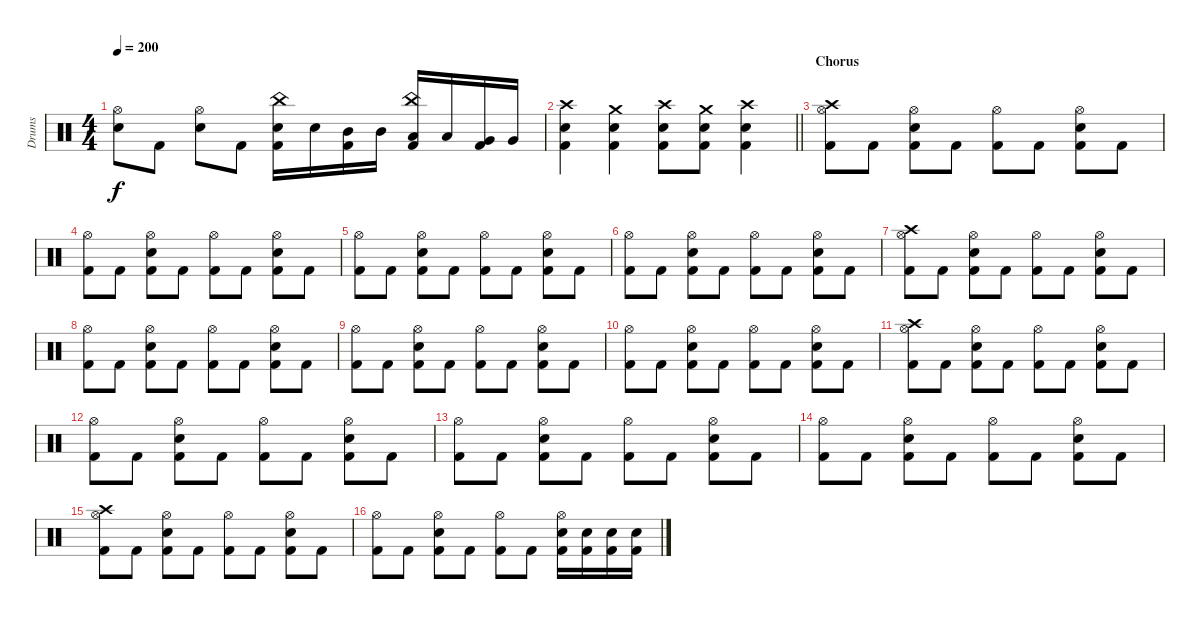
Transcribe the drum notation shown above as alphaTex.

\track ("Drums" "Drums") {instrument percussion}
\staff {score}
\articulation defaults
\ts (4 4)
\tempo 200
\clef neutral
\ks c
("Hi-Hat (open)" "Snare (hit) 2").8{dy f} "Kick (hit) 2".8 ("Hi-Hat (open)" "Snare (hit) 2").8 "Kick (hit) 2".8 ("China (hit)" "Snare (hit) 2" "Kick (hit) 2").16 "Snare (hit) 2".16 ("Mid Tom (hit)" "Kick (hit) 2").16 "Mid Tom (hit)".16 ("China (hit)" "Low Tom (hit)" "Kick (hit) 2").16 "Low Tom (hit)".16 ("Very Low Tom (hit)" "Kick (hit) 2").16 "Very Low Tom (hit)".16 |
\barLineRight lightlight
("Crash high (hit)" "Snare (hit) 2" "Kick (hit) 2").4 ("Crash medium (hit)" "Snare (hit) 2" "Kick (hit) 2").4 ("Crash high (hit)" "Snare (hit) 2" "Kick (hit) 2").8 ("Crash medium (hit)" "Snare (hit) 2" "Kick (hit) 2").8 ("Crash high (hit)" "Snare (hit) 2" "Kick (hit) 2").4 |
\section ("" "Chorus")
("Crash high (hit)" "Hi-Hat (open)" "Kick (hit) 2").8 "Kick (hit) 2".8 ("Hi-Hat (open)" "Snare (hit) 2" "Kick (hit) 2").8 "Kick (hit) 2".8 ("Hi-Hat (open)" "Kick (hit) 2").8 "Kick (hit) 2".8 ("Hi-Hat (open)" "Snare (hit) 2" "Kick (hit) 2").8 "Kick (hit) 2".8 |
("Hi-Hat (open)" "Kick (hit) 2").8 "Kick (hit) 2".8 ("Hi-Hat (open)" "Snare (hit) 2" "Kick (hit) 2").8 "Kick (hit) 2".8 ("Hi-Hat (open)" "Kick (hit) 2").8 "Kick (hit) 2".8 ("Hi-Hat (open)" "Snare (hit) 2" "Kick (hit) 2").8 "Kick (hit) 2".8 |
("Hi-Hat (open)" "Kick (hit) 2").8 "Kick (hit) 2".8 ("Hi-Hat (open)" "Snare (hit) 2" "Kick (hit) 2").8 "Kick (hit) 2".8 ("Hi-Hat (open)" "Kick (hit) 2").8 "Kick (hit) 2".8 ("Hi-Hat (open)" "Snare (hit) 2" "Kick (hit) 2").8 "Kick (hit) 2".8 |
("Hi-Hat (open)" "Kick (hit) 2").8 "Kick (hit) 2".8 ("Hi-Hat (open)" "Snare (hit) 2" "Kick (hit) 2").8 "Kick (hit) 2".8 ("Hi-Hat (open)" "Kick (hit) 2").8 "Kick (hit) 2".8 ("Hi-Hat (open)" "Snare (hit) 2" "Kick (hit) 2").8 "Kick (hit) 2".8 |
("Crash high (hit)" "Hi-Hat (open)" "Kick (hit) 2").8 "Kick (hit) 2".8 ("Hi-Hat (open)" "Snare (hit) 2" "Kick (hit) 2").8 "Kick (hit) 2".8 ("Hi-Hat (open)" "Kick (hit) 2").8 "Kick (hit) 2".8 ("Hi-Hat (open)" "Snare (hit) 2" "Kick (hit) 2").8 "Kick (hit) 2".8 |
("Hi-Hat (open)" "Kick (hit) 2").8 "Kick (hit) 2".8 ("Hi-Hat (open)" "Snare (hit) 2" "Kick (hit) 2").8 "Kick (hit) 2".8 ("Hi-Hat (open)" "Kick (hit) 2").8 "Kick (hit) 2".8 ("Hi-Hat (open)" "Snare (hit) 2" "Kick (hit) 2").8 "Kick (hit) 2".8 |
("Hi-Hat (open)" "Kick (hit) 2").8 "Kick (hit) 2".8 ("Hi-Hat (open)" "Snare (hit) 2" "Kick (hit) 2").8 "Kick (hit) 2".8 ("Hi-Hat (open)" "Kick (hit) 2").8 "Kick (hit) 2".8 ("Hi-Hat (open)" "Snare (hit) 2" "Kick (hit) 2").8 "Kick (hit) 2".8 |
("Hi-Hat (open)" "Kick (hit) 2").8 "Kick (hit) 2".8 ("Hi-Hat (open)" "Snare (hit) 2" "Kick (hit) 2").8 "Kick (hit) 2".8 ("Hi-Hat (open)" "Kick (hit) 2").8 "Kick (hit) 2".8 ("Hi-Hat (open)" "Snare (hit) 2" "Kick (hit) 2").8 "Kick (hit) 2".8 |
("Crash high (hit)" "Hi-Hat (open)" "Kick (hit) 2").8 "Kick (hit) 2".8 ("Hi-Hat (open)" "Snare (hit) 2" "Kick (hit) 2").8 "Kick (hit) 2".8 ("Hi-Hat (open)" "Kick (hit) 2").8 "Kick (hit) 2".8 ("Hi-Hat (open)" "Snare (hit) 2" "Kick (hit) 2").8 "Kick (hit) 2".8 |
("Hi-Hat (open)" "Kick (hit) 2").8 "Kick (hit) 2".8 ("Hi-Hat (open)" "Snare (hit) 2" "Kick (hit) 2").8 "Kick (hit) 2".8 ("Hi-Hat (open)" "Kick (hit) 2").8 "Kick (hit) 2".8 ("Hi-Hat (open)" "Snare (hit) 2" "Kick (hit) 2").8 "Kick (hit) 2".8 |
("Hi-Hat (open)" "Kick (hit) 2").8 "Kick (hit) 2".8 ("Hi-Hat (open)" "Snare (hit) 2" "Kick (hit) 2").8 "Kick (hit) 2".8 ("Hi-Hat (open)" "Kick (hit) 2").8 "Kick (hit) 2".8 ("Hi-Hat (open)" "Snare (hit) 2" "Kick (hit) 2").8 "Kick (hit) 2".8 |
("Hi-Hat (open)" "Kick (hit) 2").8 "Kick (hit) 2".8 ("Hi-Hat (open)" "Snare (hit) 2" "Kick (hit) 2").8 "Kick (hit) 2".8 ("Hi-Hat (open)" "Kick (hit) 2").8 "Kick (hit) 2".8 ("Hi-Hat (open)" "Snare (hit) 2" "Kick (hit) 2").8 "Kick (hit) 2".8 |
("Crash high (hit)" "Hi-Hat (open)" "Kick (hit) 2").8 "Kick (hit) 2".8 ("Hi-Hat (open)" "Snare (hit) 2" "Kick (hit) 2").8 "Kick (hit) 2".8 ("Hi-Hat (open)" "Kick (hit) 2").8 "Kick (hit) 2".8 ("Hi-Hat (open)" "Snare (hit) 2" "Kick (hit) 2").8 "Kick (hit) 2".8 |
("Hi-Hat (open)" "Kick (hit) 2").8 "Kick (hit) 2".8 ("Hi-Hat (open)" "Snare (hit) 2" "Kick (hit) 2").8 "Kick (hit) 2".8 ("Hi-Hat (open)" "Kick (hit) 2").8 "Kick (hit) 2".8 ("Hi-Hat (open)" "Snare (hit) 2" "Kick (hit) 2").16 ("Snare (hit) 2" "Kick (hit) 2").16 ("Snare (hit) 2" "Kick (hit) 2").16 ("Snare (hit) 2" "Kick (hit) 2").16
